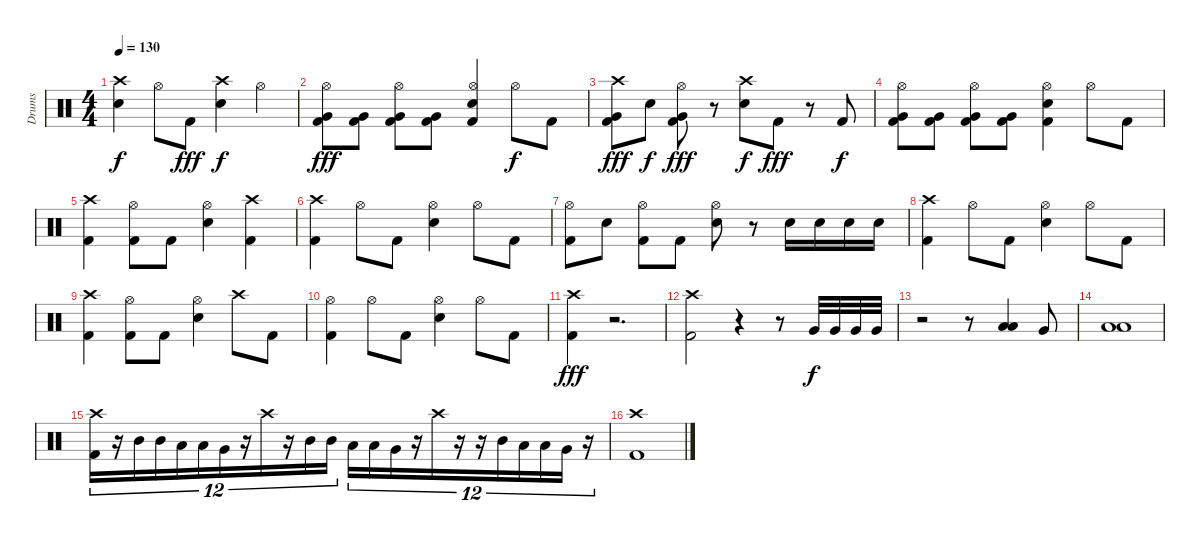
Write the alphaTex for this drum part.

\track ("Drums" "Drums") {instrument percussion}
\staff {score}
\articulation defaults
\ts (4 4)
\tempo 130
\clef neutral
\ks c
("Crash high (hit)" "Snare (hit) 2").4{dy f} "Hi-Hat (open)".8 "Kick (hit) 2".8{dy fff} ("Crash high (hit)" "Snare (hit) 2").4{dy f} "Hi-Hat (open)".4 |
("Hi-Hat (open)" "Very Low Tom (hit)" "Kick (hit) 2").8{dy fff} ("Very Low Tom (hit)" "Kick (hit) 2").8 ("Hi-Hat (open)" "Very Low Tom (hit)" "Kick (hit) 2").8 ("Very Low Tom (hit)" "Kick (hit) 2").8 ("Hi-Hat (open)" "Snare (hit) 2" "Kick (hit) 2").4 "Hi-Hat (open)".8{dy f} "Kick (hit) 2".8 |
("Crash high (hit)" "Very Low Tom (hit)" "Kick (hit) 2").8{dy fff} "Snare (hit) 2".8{dy f} ("Hi-Hat (open)" "Very Low Tom (hit)" "Kick (hit) 2").8{dy fff} r.8 ("Crash high (hit)" "Snare (hit) 2").8{dy f} "Kick (hit) 2".8{dy fff} r.8 "Kick (hit) 2".8{dy f} |
("Hi-Hat (open)" "Very Low Tom (hit)" "Kick (hit) 2").8 ("Very Low Tom (hit)" "Kick (hit) 2").8 ("Hi-Hat (open)" "Very Low Tom (hit)" "Kick (hit) 2").8 ("Very Low Tom (hit)" "Kick (hit) 2").8 ("Hi-Hat (open)" "Electric Snare (hit)" "Kick (hit) 2").4 "Hi-Hat (open)".8 "Kick (hit) 2".8 |
("Crash high (hit)" "Kick (hit) 2").4 ("Hi-Hat (open)" "Kick (hit) 2").8 "Kick (hit) 2".8 ("Hi-Hat (open)" "Snare (hit) 2").4 ("Crash high (hit)" "Kick (hit) 2").4 |
("Crash high (hit)" "Kick (hit) 2").4 "Hi-Hat (open)".8 "Kick (hit) 2".8 ("Hi-Hat (open)" "Snare (hit) 2").4 "Hi-Hat (open)".8 "Kick (hit) 2".8 |
("Hi-Hat (open)" "Kick (hit) 2").8 "Snare (hit) 2".8 ("Hi-Hat (open)" "Kick (hit) 2").8 "Kick (hit) 2".8 ("Hi-Hat (open)" "Snare (hit) 2").8 r.8 "Snare (hit) 2".16 "Snare (hit) 2".16 "Snare (hit) 2".16 "Snare (hit) 2".16 |
("Crash high (hit)" "Kick (hit) 2").4 "Hi-Hat (open)".8 "Kick (hit) 2".8 ("Hi-Hat (open)" "Snare (hit) 2").4 "Hi-Hat (open)".8 "Kick (hit) 2".8 |
("Crash high (hit)" "Kick (hit) 2").4 ("Hi-Hat (open)" "Kick (hit) 2").8 "Kick (hit) 2".8 ("Hi-Hat (open)" "Snare (hit) 2").4 "Crash high (hit)".8 "Kick (hit) 2".8 |
("Hi-Hat (open)" "Kick (hit) 2").4 "Hi-Hat (open)".8 "Kick (hit) 2".8 ("Hi-Hat (open)" "Snare (hit) 2").4 "Hi-Hat (open)".8 "Kick (hit) 2".8 |
("Crash high (hit)" "Kick (hit) 2").4{dy fff} r.2{d} |
("Crash high (hit)" "Kick (hit) 2").2 r.4 r.8 "Very Low Tom (hit)".32{dy f} "Very Low Tom (hit)".32 "Very Low Tom (hit)".32 "Very Low Tom (hit)".32 |
r.2 r.8 ("Low Tom (hit)" "Low Tom (hit)").4{bd 240} "Very Low Tom (hit)".8 |
("Low Floor Tom (hit)" "Low Floor Tom (hit)").1{bd 120} |
("Crash high (hit)" "Kick (hit) 2").16{tu (12 8)} r.16{tu (12 8)} "Mid Tom (hit)".16{tu (12 8)} "Mid Tom (hit)".16{tu (12 8)} "Low Tom (hit)".16{tu (12 8)} "Low Tom (hit)".16{tu (12 8)} "Very Low Tom (hit)".16{tu (12 8)} r.16{tu (12 8)} "Crash high (hit)".16{tu (12 8)} r.16{tu (12 8)} "Mid Tom (hit)".16{tu (12 8)} "Mid Tom (hit)".16{tu (12 8)} "Low Tom (hit)".16{tu (12 8)} "Low Tom (hit)".16{tu (12 8)} "Very Low Tom (hit)".16{tu (12 8)} r.16{tu (12 8)} "Crash high (hit)".16{tu (12 8)} r.16{tu (12 8)} r.16{tu (12 8)} "Mid Tom (hit)".16{tu (12 8)} "Low Tom (hit)".16{tu (12 8)} "Low Tom (hit)".16{tu (12 8)} "Very Low Tom (hit)".16{tu (12 8)} r.16{tu (12 8)} |
("Crash high (hit)" "Kick (hit) 2").1
